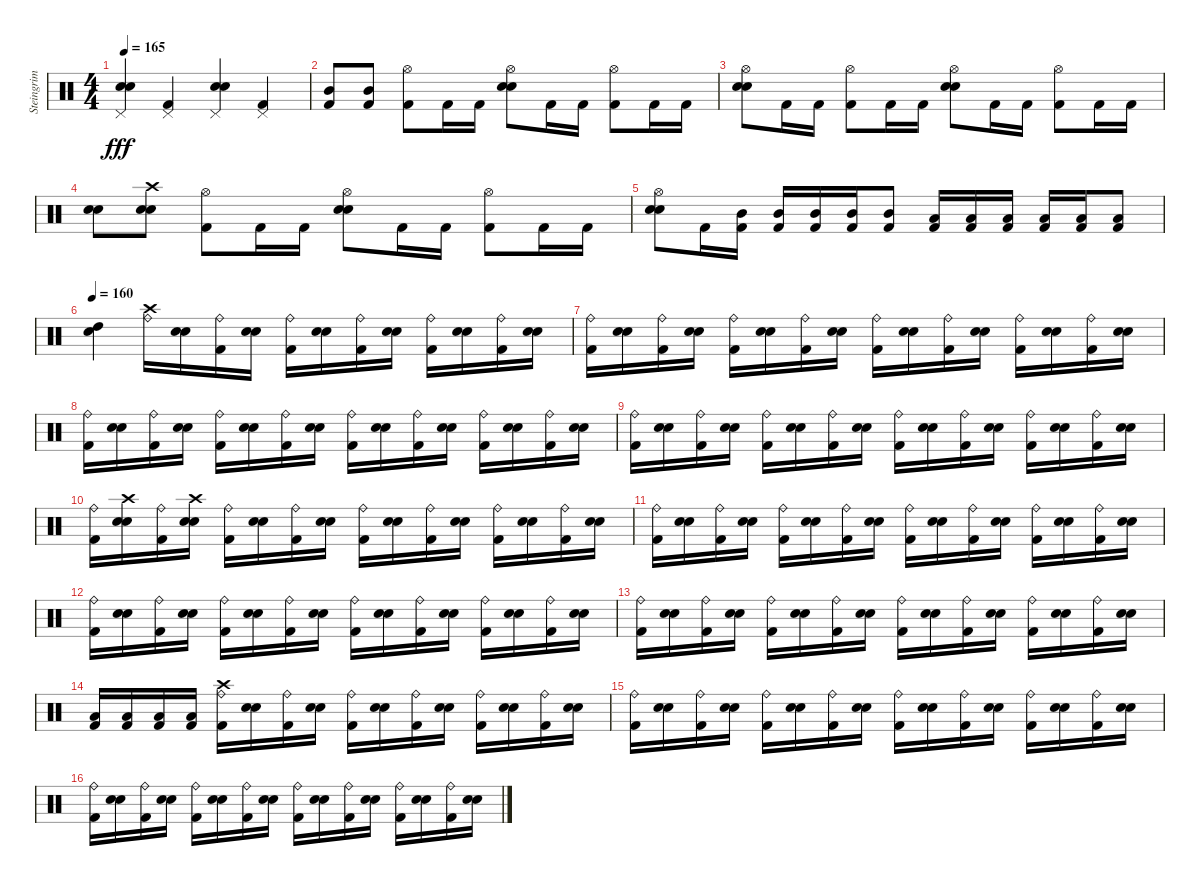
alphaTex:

\track ("Steingrim" "Steingrim") {instrument percussion}
\staff {score}
\articulation defaults
\ts (4 4)
\tempo 165
\clef neutral
\ks c
("Snare (hit) 2" "Electric Snare (hit)" "Pedal Hi-Hat (hit)").4{dy fff} ("Kick (hit) 2" "Pedal Hi-Hat (hit)").4 ("Snare (hit) 2" "Electric Snare (hit)" "Pedal Hi-Hat (hit)").4 ("Kick (hit) 2" "Pedal Hi-Hat (hit)").4 |
("Mid Tom (hit)" "Kick (hit) 2").8 ("Mid Tom (hit)" "Kick (hit) 2").8 ("Kick (hit) 2" "Hi-Hat (open)").8 "Kick (hit) 2".16 "Kick (hit) 2".16 ("Snare (hit) 2" "Electric Snare (hit)" "Hi-Hat (open)").8 "Kick (hit) 2".16 "Kick (hit) 2".16 ("Kick (hit) 2" "Hi-Hat (open)").8 "Kick (hit) 2".16 "Kick (hit) 2".16 |
("Snare (hit) 2" "Electric Snare (hit)" "Hi-Hat (open)").8 "Kick (hit) 2".16 "Kick (hit) 2".16 ("Kick (hit) 2" "Hi-Hat (open)").8 "Kick (hit) 2".16 "Kick (hit) 2".16 ("Snare (hit) 2" "Electric Snare (hit)" "Hi-Hat (open)").8 "Kick (hit) 2".16 "Kick (hit) 2".16 ("Kick (hit) 2" "Hi-Hat (open)").8 "Kick (hit) 2".16 "Kick (hit) 2".16 |
("Snare (hit) 2" "Electric Snare (hit)").8 ("Snare (hit) 2" "Electric Snare (hit)" "Crash high (hit)").8 ("Kick (hit) 2" "Hi-Hat (open)").8 "Kick (hit) 2".16 "Kick (hit) 2".16 ("Snare (hit) 2" "Electric Snare (hit)" "Hi-Hat (open)").8 "Kick (hit) 2".16 "Kick (hit) 2".16 ("Kick (hit) 2" "Hi-Hat (open)").8 "Kick (hit) 2".16 "Kick (hit) 2".16 |
("Snare (hit) 2" "Electric Snare (hit)" "Hi-Hat (open)").8 "Kick (hit) 2".16 ("Mid Tom (hit)" "Kick (hit) 2").16 ("Mid Tom (hit)" "Kick (hit) 2").16 ("Mid Tom (hit)" "Kick (hit) 2").16 ("Mid Tom (hit)" "Kick (hit) 2").16 ("Mid Tom (hit)" "Kick (hit) 2").8 ("Low Tom (hit)" "Kick (hit) 2").16 ("Low Tom (hit)" "Kick (hit) 2").16 ("Low Tom (hit)" "Kick (hit) 2").16 ("Low Tom (hit)" "Kick (hit) 2").16 ("Low Tom (hit)" "Kick (hit) 2").16 ("Low Tom (hit)" "Kick (hit) 2").8 |
\tempo 160
("High Tom (hit)" "Electric Snare (hit)").4 ("Ride (bell)" "Crash high (hit)").16 ("Electric Snare (hit)" "Snare (hit) 2").16 ("Ride (bell)" "Kick (hit) 2").16 ("Electric Snare (hit)" "Snare (hit) 2").16 ("Ride (bell)" "Kick (hit) 2").16 ("Electric Snare (hit)" "Snare (hit) 2").16 ("Ride (bell)" "Kick (hit) 2").16 ("Electric Snare (hit)" "Snare (hit) 2").16 ("Ride (bell)" "Kick (hit) 2").16 ("Electric Snare (hit)" "Snare (hit) 2").16 ("Ride (bell)" "Kick (hit) 2").16 ("Electric Snare (hit)" "Snare (hit) 2").16 |
("Kick (hit) 2" "Ride (bell)").16 ("Snare (hit) 2" "Electric Snare (hit)").16 ("Kick (hit) 2" "Ride (bell)").16 ("Snare (hit) 2" "Electric Snare (hit)").16 ("Kick (hit) 2" "Ride (bell)").16 ("Snare (hit) 2" "Electric Snare (hit)").16 ("Kick (hit) 2" "Ride (bell)").16 ("Snare (hit) 2" "Electric Snare (hit)").16 ("Kick (hit) 2" "Ride (bell)").16 ("Snare (hit) 2" "Electric Snare (hit)").16 ("Kick (hit) 2" "Ride (bell)").16 ("Snare (hit) 2" "Electric Snare (hit)").16 ("Kick (hit) 2" "Ride (bell)").16 ("Snare (hit) 2" "Electric Snare (hit)").16 ("Kick (hit) 2" "Ride (bell)").16 ("Snare (hit) 2" "Electric Snare (hit)").16 |
("Kick (hit) 2" "Ride (bell)").16 ("Snare (hit) 2" "Electric Snare (hit)").16 ("Kick (hit) 2" "Ride (bell)").16 ("Snare (hit) 2" "Electric Snare (hit)").16 ("Kick (hit) 2" "Ride (bell)").16 ("Snare (hit) 2" "Electric Snare (hit)").16 ("Kick (hit) 2" "Ride (bell)").16 ("Snare (hit) 2" "Electric Snare (hit)").16 ("Kick (hit) 2" "Ride (bell)").16 ("Snare (hit) 2" "Electric Snare (hit)").16 ("Kick (hit) 2" "Ride (bell)").16 ("Snare (hit) 2" "Electric Snare (hit)").16 ("Kick (hit) 2" "Ride (bell)").16 ("Snare (hit) 2" "Electric Snare (hit)").16 ("Kick (hit) 2" "Ride (bell)").16 ("Snare (hit) 2" "Electric Snare (hit)").16 |
("Kick (hit) 2" "Ride (bell)").16 ("Snare (hit) 2" "Electric Snare (hit)").16 ("Kick (hit) 2" "Ride (bell)").16 ("Snare (hit) 2" "Electric Snare (hit)").16 ("Kick (hit) 2" "Ride (bell)").16 ("Snare (hit) 2" "Electric Snare (hit)").16 ("Kick (hit) 2" "Ride (bell)").16 ("Snare (hit) 2" "Electric Snare (hit)").16 ("Kick (hit) 2" "Ride (bell)").16 ("Snare (hit) 2" "Electric Snare (hit)").16 ("Kick (hit) 2" "Ride (bell)").16 ("Snare (hit) 2" "Electric Snare (hit)").16 ("Kick (hit) 2" "Ride (bell)").16 ("Snare (hit) 2" "Electric Snare (hit)").16 ("Kick (hit) 2" "Ride (bell)").16 ("Snare (hit) 2" "Electric Snare (hit)").16 |
("Kick (hit) 2" "Ride (bell)").16 ("Snare (hit) 2" "Electric Snare (hit)" "Crash high (hit)").16 ("Kick (hit) 2" "Ride (bell)").16 ("Snare (hit) 2" "Electric Snare (hit)" "Crash high (hit)").16 ("Kick (hit) 2" "Ride (bell)").16 ("Snare (hit) 2" "Electric Snare (hit)").16 ("Kick (hit) 2" "Ride (bell)").16 ("Snare (hit) 2" "Electric Snare (hit)").16 ("Kick (hit) 2" "Ride (bell)").16 ("Snare (hit) 2" "Electric Snare (hit)").16 ("Kick (hit) 2" "Ride (bell)").16 ("Snare (hit) 2" "Electric Snare (hit)").16 ("Kick (hit) 2" "Ride (bell)").16 ("Snare (hit) 2" "Electric Snare (hit)").16 ("Kick (hit) 2" "Ride (bell)").16 ("Snare (hit) 2" "Electric Snare (hit)").16 |
("Kick (hit) 2" "Ride (bell)").16 ("Snare (hit) 2" "Electric Snare (hit)").16 ("Kick (hit) 2" "Ride (bell)").16 ("Snare (hit) 2" "Electric Snare (hit)").16 ("Kick (hit) 2" "Ride (bell)").16 ("Snare (hit) 2" "Electric Snare (hit)").16 ("Kick (hit) 2" "Ride (bell)").16 ("Snare (hit) 2" "Electric Snare (hit)").16 ("Kick (hit) 2" "Ride (bell)").16 ("Snare (hit) 2" "Electric Snare (hit)").16 ("Kick (hit) 2" "Ride (bell)").16 ("Snare (hit) 2" "Electric Snare (hit)").16 ("Kick (hit) 2" "Ride (bell)").16 ("Snare (hit) 2" "Electric Snare (hit)").16 ("Kick (hit) 2" "Ride (bell)").16 ("Snare (hit) 2" "Electric Snare (hit)").16 |
("Kick (hit) 2" "Ride (bell)").16 ("Snare (hit) 2" "Electric Snare (hit)").16 ("Kick (hit) 2" "Ride (bell)").16 ("Snare (hit) 2" "Electric Snare (hit)").16 ("Kick (hit) 2" "Ride (bell)").16 ("Snare (hit) 2" "Electric Snare (hit)").16 ("Kick (hit) 2" "Ride (bell)").16 ("Snare (hit) 2" "Electric Snare (hit)").16 ("Kick (hit) 2" "Ride (bell)").16 ("Snare (hit) 2" "Electric Snare (hit)").16 ("Kick (hit) 2" "Ride (bell)").16 ("Snare (hit) 2" "Electric Snare (hit)").16 ("Kick (hit) 2" "Ride (bell)").16 ("Snare (hit) 2" "Electric Snare (hit)").16 ("Kick (hit) 2" "Ride (bell)").16 ("Snare (hit) 2" "Electric Snare (hit)").16 |
("Kick (hit) 2" "Ride (bell)").16 ("Snare (hit) 2" "Electric Snare (hit)").16 ("Kick (hit) 2" "Ride (bell)").16 ("Snare (hit) 2" "Electric Snare (hit)").16 ("Kick (hit) 2" "Ride (bell)").16 ("Snare (hit) 2" "Electric Snare (hit)").16 ("Kick (hit) 2" "Ride (bell)").16 ("Snare (hit) 2" "Electric Snare (hit)").16 ("Kick (hit) 2" "Ride (bell)").16 ("Snare (hit) 2" "Electric Snare (hit)").16 ("Kick (hit) 2" "Ride (bell)").16 ("Snare (hit) 2" "Electric Snare (hit)").16 ("Kick (hit) 2" "Ride (bell)").16 ("Snare (hit) 2" "Electric Snare (hit)").16 ("Kick (hit) 2" "Ride (bell)").16 ("Electric Snare (hit)" "Snare (hit) 2").16 |
("Low Tom (hit)" "Kick (hit) 2").16 ("Low Tom (hit)" "Kick (hit) 2").16 ("Low Tom (hit)" "Kick (hit) 2").16 ("Low Tom (hit)" "Kick (hit) 2").16 ("Kick (hit) 2" "Ride (bell)" "Crash high (hit)").16 ("Snare (hit) 2" "Electric Snare (hit)").16 ("Kick (hit) 2" "Ride (bell)").16 ("Snare (hit) 2" "Electric Snare (hit)").16 ("Kick (hit) 2" "Ride (bell)").16 ("Snare (hit) 2" "Electric Snare (hit)").16 ("Kick (hit) 2" "Ride (bell)").16 ("Snare (hit) 2" "Electric Snare (hit)").16 ("Kick (hit) 2" "Ride (bell)").16 ("Snare (hit) 2" "Electric Snare (hit)").16 ("Kick (hit) 2" "Ride (bell)").16 ("Snare (hit) 2" "Electric Snare (hit)").16 |
("Kick (hit) 2" "Ride (bell)").16 ("Snare (hit) 2" "Electric Snare (hit)").16 ("Kick (hit) 2" "Ride (bell)").16 ("Snare (hit) 2" "Electric Snare (hit)").16 ("Kick (hit) 2" "Ride (bell)").16 ("Snare (hit) 2" "Electric Snare (hit)").16 ("Kick (hit) 2" "Ride (bell)").16 ("Snare (hit) 2" "Electric Snare (hit)").16 ("Kick (hit) 2" "Ride (bell)").16 ("Snare (hit) 2" "Electric Snare (hit)").16 ("Kick (hit) 2" "Ride (bell)").16 ("Snare (hit) 2" "Electric Snare (hit)").16 ("Kick (hit) 2" "Ride (bell)").16 ("Snare (hit) 2" "Electric Snare (hit)").16 ("Kick (hit) 2" "Ride (bell)").16 ("Electric Snare (hit)" "Snare (hit) 2").16 |
("Kick (hit) 2" "Ride (bell)").16 ("Snare (hit) 2" "Electric Snare (hit)").16 ("Kick (hit) 2" "Ride (bell)").16 ("Snare (hit) 2" "Electric Snare (hit)").16 ("Kick (hit) 2" "Ride (bell)").16 ("Snare (hit) 2" "Electric Snare (hit)").16 ("Kick (hit) 2" "Ride (bell)").16 ("Snare (hit) 2" "Electric Snare (hit)").16 ("Kick (hit) 2" "Ride (bell)").16 ("Snare (hit) 2" "Electric Snare (hit)").16 ("Kick (hit) 2" "Ride (bell)").16 ("Snare (hit) 2" "Electric Snare (hit)").16 ("Kick (hit) 2" "Ride (bell)").16 ("Snare (hit) 2" "Electric Snare (hit)").16 ("Kick (hit) 2" "Ride (bell)").16 ("Snare (hit) 2" "Electric Snare (hit)").16
